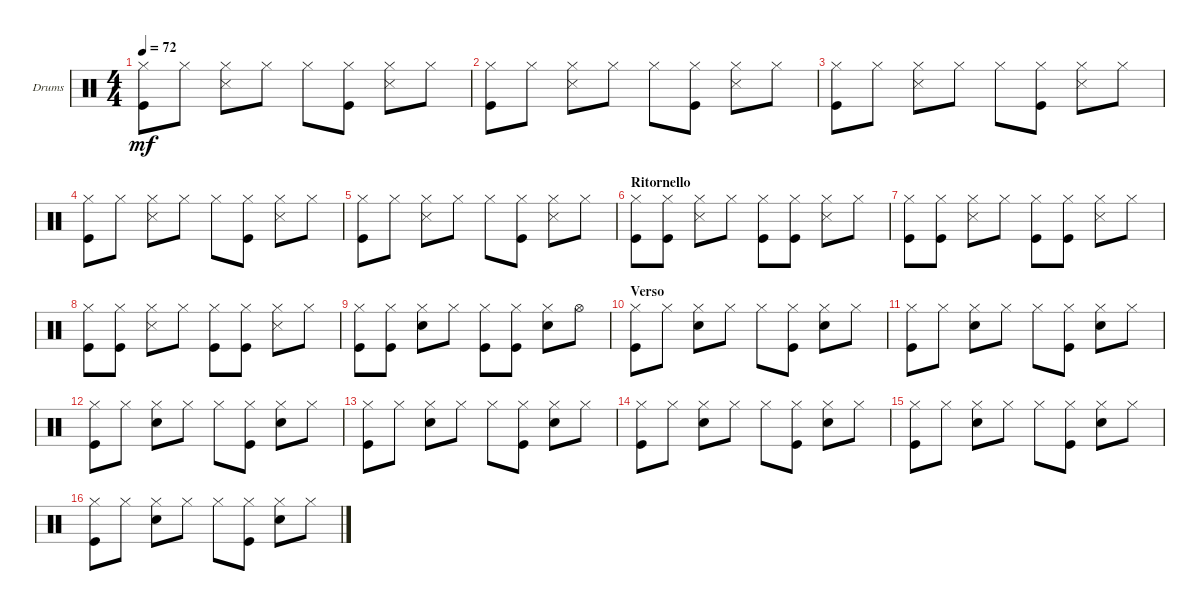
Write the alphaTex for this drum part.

\defaultSystemsLayout 4
\bracketExtendMode groupsimilarinstruments
\firstSystemTrackNameOrientation horizontal
\otherSystemsTrackNameOrientation horizontal
\track ("Drums" "Drums") {instrument percussion}
\staff {score}
\articulation defaults
\ts (4 4)
\tempo 72
\clef neutral
\ks c
("Kick (hit)" "Hi-Hat (closed)").8{dy mf} "Hi-Hat (closed)".8 ("Hi-Hat (closed)" "Snare (side stick) 3").8 "Hi-Hat (closed)".8 "Hi-Hat (closed)".8 ("Hi-Hat (closed)" "Kick (hit)").8 ("Hi-Hat (closed)" "Snare (side stick) 3").8 "Hi-Hat (closed)".8 |
("Kick (hit)" "Hi-Hat (closed)").8 "Hi-Hat (closed)".8 ("Hi-Hat (closed)" "Snare (side stick) 3").8 "Hi-Hat (closed)".8 "Hi-Hat (closed)".8 ("Hi-Hat (closed)" "Kick (hit)").8 ("Hi-Hat (closed)" "Snare (side stick) 3").8 "Hi-Hat (closed)".8 |
("Kick (hit)" "Hi-Hat (closed)").8 "Hi-Hat (closed)".8 ("Hi-Hat (closed)" "Snare (side stick) 3").8 "Hi-Hat (closed)".8 "Hi-Hat (closed)".8 ("Hi-Hat (closed)" "Kick (hit)").8 ("Hi-Hat (closed)" "Snare (side stick) 3").8 "Hi-Hat (closed)".8 |
("Kick (hit)" "Hi-Hat (closed)").8 "Hi-Hat (closed)".8 ("Hi-Hat (closed)" "Snare (side stick) 3").8 "Hi-Hat (closed)".8 "Hi-Hat (closed)".8 ("Hi-Hat (closed)" "Kick (hit)").8 ("Hi-Hat (closed)" "Snare (side stick) 3").8 "Hi-Hat (closed)".8 |
("Kick (hit)" "Hi-Hat (closed)").8 "Hi-Hat (closed)".8 ("Hi-Hat (closed)" "Snare (side stick) 3").8 "Hi-Hat (closed)".8 "Hi-Hat (closed)".8 ("Hi-Hat (closed)" "Kick (hit)").8 ("Hi-Hat (closed)" "Snare (side stick) 3").8 "Hi-Hat (closed)".8 |
\section ("" "Ritornello")
("Kick (hit)" "Hi-Hat (closed)").8 ("Hi-Hat (closed)" "Kick (hit)").8 ("Hi-Hat (closed)" "Snare (side stick) 3").8 "Hi-Hat (closed)".8 ("Hi-Hat (closed)" "Kick (hit)").8 ("Hi-Hat (closed)" "Kick (hit)").8 ("Hi-Hat (closed)" "Snare (side stick) 3").8 "Hi-Hat (closed)".8 |
("Kick (hit)" "Hi-Hat (closed)").8 ("Hi-Hat (closed)" "Kick (hit)").8 ("Hi-Hat (closed)" "Snare (side stick) 3").8 "Hi-Hat (closed)".8 ("Hi-Hat (closed)" "Kick (hit)").8 ("Hi-Hat (closed)" "Kick (hit)").8 ("Hi-Hat (closed)" "Snare (side stick) 3").8 "Hi-Hat (closed)".8 |
("Kick (hit)" "Hi-Hat (closed)").8 ("Hi-Hat (closed)" "Kick (hit)").8 ("Hi-Hat (closed)" "Snare (side stick) 3").8 "Hi-Hat (closed)".8 ("Hi-Hat (closed)" "Kick (hit)").8 ("Hi-Hat (closed)" "Kick (hit)").8 ("Hi-Hat (closed)" "Snare (side stick) 3").8 "Hi-Hat (closed)".8 |
("Kick (hit)" "Hi-Hat (closed)").8 ("Hi-Hat (closed)" "Kick (hit)").8 ("Hi-Hat (closed)" "Snare (hit) 2").8 "Hi-Hat (closed)".8 ("Hi-Hat (closed)" "Kick (hit)").8 ("Hi-Hat (closed)" "Kick (hit)").8 ("Hi-Hat (closed)" "Snare (hit) 2").8 "Hi-Hat (open)".8 |
\section ("" "Verso")
("Kick (hit)" "Hi-Hat (closed)").8 "Hi-Hat (closed)".8 ("Hi-Hat (closed)" "Snare (hit) 2").8 "Hi-Hat (closed)".8 "Hi-Hat (closed)".8 ("Hi-Hat (closed)" "Kick (hit)").8 ("Hi-Hat (closed)" "Snare (hit) 2").8 "Hi-Hat (closed)".8 |
("Kick (hit)" "Hi-Hat (closed)").8 "Hi-Hat (closed)".8 ("Hi-Hat (closed)" "Snare (hit) 2").8 "Hi-Hat (closed)".8 "Hi-Hat (closed)".8 ("Hi-Hat (closed)" "Kick (hit)").8 ("Hi-Hat (closed)" "Snare (hit) 2").8 "Hi-Hat (closed)".8 |
("Kick (hit)" "Hi-Hat (closed)").8 "Hi-Hat (closed)".8 ("Hi-Hat (closed)" "Snare (hit) 2").8 "Hi-Hat (closed)".8 "Hi-Hat (closed)".8 ("Hi-Hat (closed)" "Kick (hit)").8 ("Hi-Hat (closed)" "Snare (hit) 2").8 "Hi-Hat (closed)".8 |
("Kick (hit)" "Hi-Hat (closed)").8 "Hi-Hat (closed)".8 ("Hi-Hat (closed)" "Snare (hit) 2").8 "Hi-Hat (closed)".8 "Hi-Hat (closed)".8 ("Hi-Hat (closed)" "Kick (hit)").8 ("Hi-Hat (closed)" "Snare (hit) 2").8 "Hi-Hat (closed)".8 |
("Kick (hit)" "Hi-Hat (closed)").8 "Hi-Hat (closed)".8 ("Hi-Hat (closed)" "Snare (hit) 2").8 "Hi-Hat (closed)".8 "Hi-Hat (closed)".8 ("Hi-Hat (closed)" "Kick (hit)").8 ("Hi-Hat (closed)" "Snare (hit) 2").8 "Hi-Hat (closed)".8 |
("Kick (hit)" "Hi-Hat (closed)").8 "Hi-Hat (closed)".8 ("Hi-Hat (closed)" "Snare (hit) 2").8 "Hi-Hat (closed)".8 "Hi-Hat (closed)".8 ("Hi-Hat (closed)" "Kick (hit)").8 ("Hi-Hat (closed)" "Snare (hit) 2").8 "Hi-Hat (closed)".8 |
("Kick (hit)" "Hi-Hat (closed)").8 "Hi-Hat (closed)".8 ("Hi-Hat (closed)" "Snare (hit) 2").8 "Hi-Hat (closed)".8 "Hi-Hat (closed)".8 ("Hi-Hat (closed)" "Kick (hit)").8 ("Hi-Hat (closed)" "Snare (hit) 2").8 "Hi-Hat (closed)".8
